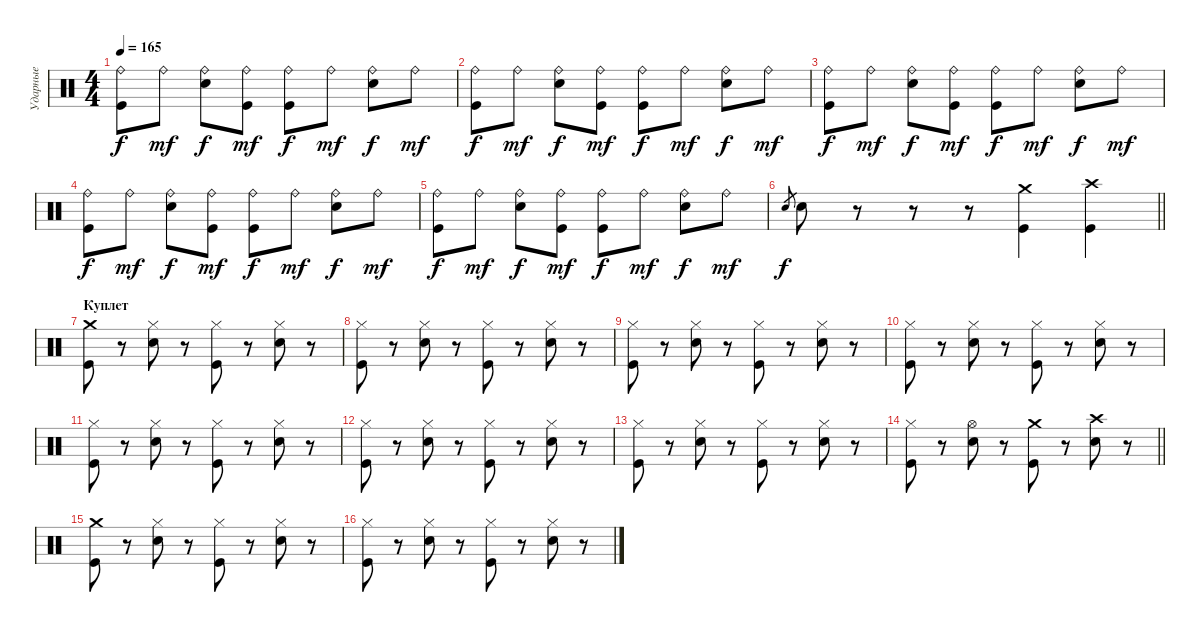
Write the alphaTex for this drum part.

\track ("Ударные" "Ударные") {instrument percussion}
\staff {score}
\articulation defaults
\ts (4 4)
\tempo 165
\clef neutral
\ks c
("Ride (bell)" "Kick (hit)").8{dy f} "Ride (bell)".8{dy mf} ("Ride (bell)" "Electric Snare (hit)").8{dy f} ("Ride (bell)" "Kick (hit)").8{dy mf} ("Ride (bell)" "Kick (hit)").8{dy f} "Ride (bell)".8{dy mf} ("Ride (bell)" "Electric Snare (hit)").8{dy f} "Ride (bell)".8{dy mf} |
("Ride (bell)" "Kick (hit)").8{dy f} "Ride (bell)".8{dy mf} ("Ride (bell)" "Electric Snare (hit)").8{dy f} ("Ride (bell)" "Kick (hit)").8{dy mf} ("Ride (bell)" "Kick (hit)").8{dy f} "Ride (bell)".8{dy mf} ("Ride (bell)" "Electric Snare (hit)").8{dy f} "Ride (bell)".8{dy mf} |
("Ride (bell)" "Kick (hit)").8{dy f} "Ride (bell)".8{dy mf} ("Ride (bell)" "Electric Snare (hit)").8{dy f} ("Ride (bell)" "Kick (hit)").8{dy mf} ("Ride (bell)" "Kick (hit)").8{dy f} "Ride (bell)".8{dy mf} ("Ride (bell)" "Electric Snare (hit)").8{dy f} "Ride (bell)".8{dy mf} |
("Ride (bell)" "Kick (hit)").8{dy f} "Ride (bell)".8{dy mf} ("Ride (bell)" "Electric Snare (hit)").8{dy f} ("Ride (bell)" "Kick (hit)").8{dy mf} ("Ride (bell)" "Kick (hit)").8{dy f} "Ride (bell)".8{dy mf} ("Ride (bell)" "Electric Snare (hit)").8{dy f} "Ride (bell)".8{dy mf} |
("Ride (bell)" "Kick (hit)").8{dy f} "Ride (bell)".8{dy mf} ("Ride (bell)" "Electric Snare (hit)").8{dy f} ("Ride (bell)" "Kick (hit)").8{dy mf} ("Ride (bell)" "Kick (hit)").8{dy f} "Ride (bell)".8{dy mf} ("Ride (bell)" "Electric Snare (hit)").8{dy f} "Ride (bell)".8{dy mf} |
\barLineRight lightlight "Electric Snare (hit)".8{gr dy f} "Electric Snare (hit)".8
r.8 r.8 r.8 ("Crash medium (hit)" "Kick (hit)").4 ("Crash high (hit)" "Kick (hit)").4 |
\section ("" "Куплет")
("Crash medium (hit)" "Kick (hit)").8 r.8 ("Hi-Hat (closed)" "Electric Snare (hit)").8 r.8 ("Hi-Hat (closed)" "Kick (hit)").8 r.8 ("Hi-Hat (closed)" "Electric Snare (hit)").8 r.8 |
("Hi-Hat (closed)" "Kick (hit)").8 r.8 ("Hi-Hat (closed)" "Electric Snare (hit)").8 r.8 ("Hi-Hat (closed)" "Kick (hit)").8 r.8 ("Hi-Hat (closed)" "Electric Snare (hit)").8 r.8 |
("Hi-Hat (closed)" "Kick (hit)").8 r.8 ("Hi-Hat (closed)" "Electric Snare (hit)").8 r.8 ("Hi-Hat (closed)" "Kick (hit)").8 r.8 ("Hi-Hat (closed)" "Electric Snare (hit)").8 r.8 |
("Hi-Hat (closed)" "Kick (hit)").8 r.8 ("Hi-Hat (closed)" "Electric Snare (hit)").8 r.8 ("Hi-Hat (closed)" "Kick (hit)").8 r.8 ("Hi-Hat (closed)" "Electric Snare (hit)").8 r.8 |
("Hi-Hat (closed)" "Kick (hit)").8 r.8 ("Hi-Hat (closed)" "Electric Snare (hit)").8 r.8 ("Hi-Hat (closed)" "Kick (hit)").8 r.8 ("Hi-Hat (closed)" "Electric Snare (hit)").8 r.8 |
("Hi-Hat (closed)" "Kick (hit)").8 r.8 ("Hi-Hat (closed)" "Electric Snare (hit)").8 r.8 ("Hi-Hat (closed)" "Kick (hit)").8 r.8 ("Hi-Hat (closed)" "Electric Snare (hit)").8 r.8 |
("Hi-Hat (closed)" "Kick (hit)").8 r.8 ("Hi-Hat (closed)" "Electric Snare (hit)").8 r.8 ("Hi-Hat (closed)" "Kick (hit)").8 r.8 ("Hi-Hat (closed)" "Electric Snare (hit)").8 r.8 |
\barLineRight lightlight
("Hi-Hat (closed)" "Kick (hit)").8 r.8 ("Hi-Hat (open)" "Electric Snare (hit)").8 r.8 ("Crash medium (hit)" "Kick (hit)").8 r.8 ("Crash high (hit)" "Electric Snare (hit)").8 r.8 |
\section ("" " ")
("Crash medium (hit)" "Kick (hit)").8 r.8 ("Hi-Hat (closed)" "Electric Snare (hit)").8 r.8 ("Hi-Hat (closed)" "Kick (hit)").8 r.8 ("Hi-Hat (closed)" "Electric Snare (hit)").8 r.8 |
("Hi-Hat (closed)" "Kick (hit)").8 r.8 ("Hi-Hat (closed)" "Electric Snare (hit)").8 r.8 ("Hi-Hat (closed)" "Kick (hit)").8 r.8 ("Hi-Hat (closed)" "Electric Snare (hit)").8 r.8
